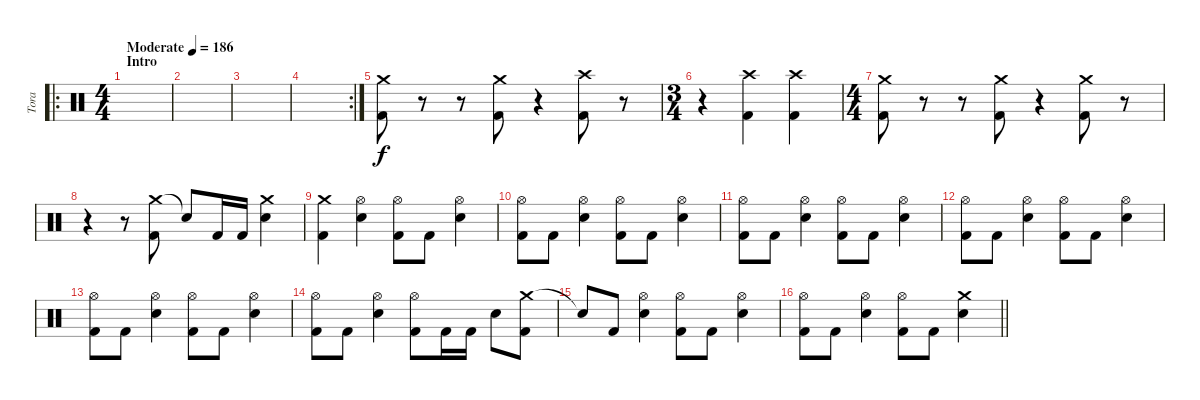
\track ("Tora" "Tora") {instrument percussion}
\staff {score}
\articulation defaults
\ro
\ts (4 4)
\section ("" "Intro")
\tempo (186 "Moderate")
\clef neutral
\ks c
|
|
|
\rc 2
|
("Crash medium (hit)" "Kick (hit) 2").8 r.8 r.8 ("Crash medium (hit)" "Kick (hit) 2").8 r.4 ("Crash high (hit)" "Kick (hit) 2").8 r.8 |
\ts (3 4)
r.4 ("Crash high (hit)" "Kick (hit) 2").4 ("Crash high (hit)" "Kick (hit) 2").4 |
\ts (4 4)
("Crash medium (hit)" "Kick (hit) 2").8 r.8 r.8 ("Crash medium (hit)" "Kick (hit) 2").8 r.4 ("Crash medium (hit)" "Kick (hit) 2").8 r.8 |
r.4 r.8 ("Crash medium (hit)" "Kick (hit) 2").8 "Snare (hit)"{t}.8 "Kick (hit) 2".16 "Kick (hit) 2".16 ("Crash medium (hit)" "Electric Snare (hit)").4 |
("Crash medium (hit)" "Kick (hit) 2").4 ("Hi-Hat (open)" "Electric Snare (hit)").4 ("Hi-Hat (open)" "Kick (hit) 2").8 "Kick (hit) 2".8 ("Hi-Hat (open)" "Electric Snare (hit)").4 |
("Hi-Hat (open)" "Kick (hit) 2").8 "Kick (hit) 2".8 ("Hi-Hat (open)" "Electric Snare (hit)").4 ("Hi-Hat (open)" "Kick (hit) 2").8 "Kick (hit) 2".8 ("Hi-Hat (open)" "Electric Snare (hit)").4 |
("Hi-Hat (open)" "Kick (hit) 2").8 "Kick (hit) 2".8 ("Hi-Hat (open)" "Electric Snare (hit)").4 ("Hi-Hat (open)" "Kick (hit) 2").8 "Kick (hit) 2".8 ("Hi-Hat (open)" "Electric Snare (hit)").4 |
("Hi-Hat (open)" "Kick (hit) 2").8 "Kick (hit) 2".8 ("Hi-Hat (open)" "Electric Snare (hit)").4 ("Hi-Hat (open)" "Kick (hit) 2").8 "Kick (hit) 2".8 ("Hi-Hat (open)" "Electric Snare (hit)").4 |
("Hi-Hat (open)" "Kick (hit) 2").8 "Kick (hit) 2".8 ("Hi-Hat (open)" "Electric Snare (hit)").4 ("Hi-Hat (open)" "Kick (hit) 2").8 "Kick (hit) 2".8 ("Hi-Hat (open)" "Electric Snare (hit)").4 |
("Hi-Hat (open)" "Kick (hit) 2").8 "Kick (hit) 2".8 ("Hi-Hat (open)" "Electric Snare (hit)").4 ("Hi-Hat (open)" "Kick (hit) 2").8 "Kick (hit) 2".16 "Kick (hit) 2".16 "Electric Snare (hit)".8 ("Crash medium (hit)" "Kick (hit) 2").8 |
"Snare (hit)"{t}.8 "Kick (hit) 2".8 ("Hi-Hat (open)" "Electric Snare (hit)").4 ("Hi-Hat (open)" "Kick (hit) 2").8 "Kick (hit) 2".8 ("Hi-Hat (open)" "Electric Snare (hit)").4 |
\barLineRight lightlight
("Hi-Hat (open)" "Kick (hit) 2").8 "Kick (hit) 2".8 ("Hi-Hat (open)" "Electric Snare (hit)").4 ("Hi-Hat (open)" "Kick (hit) 2").8 "Kick (hit) 2".8 ("Crash medium (hit)" "Electric Snare (hit)").4
